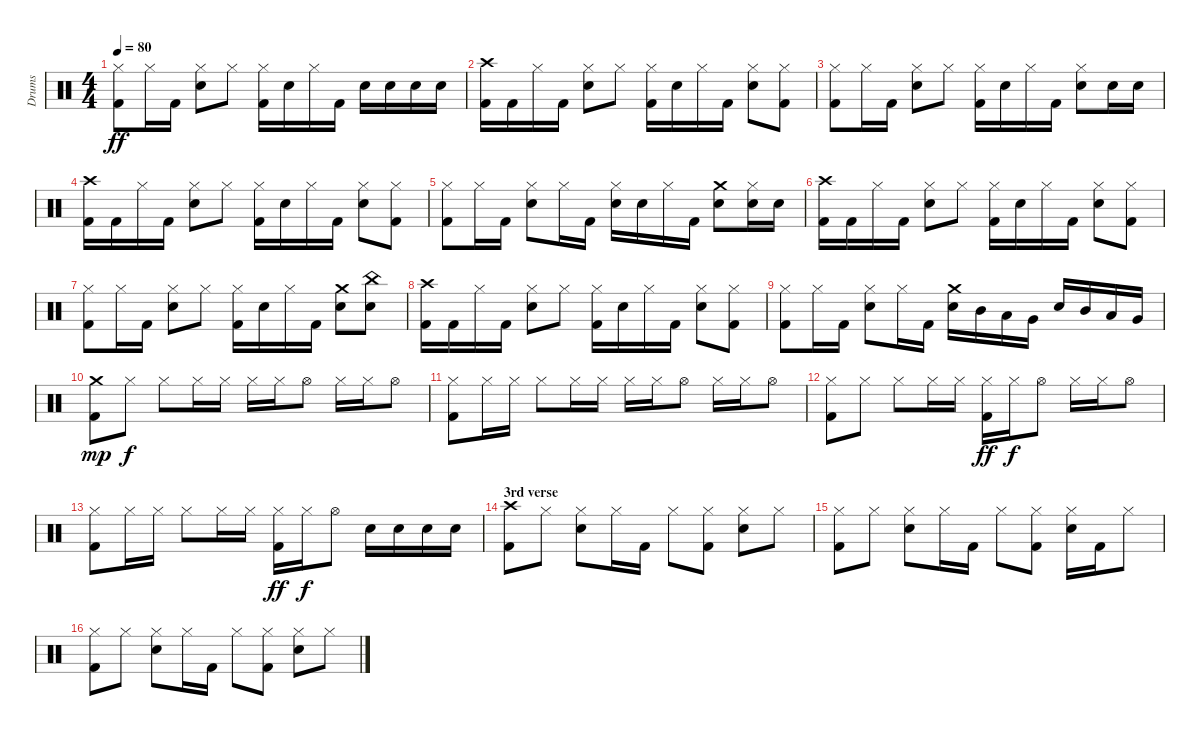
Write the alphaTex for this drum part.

\track ("Drums" "Drums") {instrument percussion}
\staff {score}
\articulation defaults
\ts (4 4)
\tempo 80
\clef neutral
\ks c
("Hi-Hat (closed)" "Kick (hit) 2").8{dy ff} "Hi-Hat (closed)".16 "Kick (hit) 2".16 ("Hi-Hat (closed)" "Snare (hit) 2").8 "Hi-Hat (closed)".8 ("Hi-Hat (closed)" "Kick (hit) 2").16 "Snare (hit) 2".16 "Hi-Hat (closed)".16 "Kick (hit) 2".16 "Snare (hit) 2".16 "Snare (hit) 2".16 "Snare (hit) 2".16 "Snare (hit) 2".16 |
("Crash high (hit)" "Kick (hit) 2").16 "Kick (hit) 2".16 "Hi-Hat (closed)".16 "Kick (hit) 2".16 ("Hi-Hat (closed)" "Snare (hit) 2").8 "Hi-Hat (closed)".8 ("Hi-Hat (closed)" "Kick (hit) 2").16 "Snare (hit) 2".16 "Hi-Hat (closed)".16 "Kick (hit) 2".16 ("Hi-Hat (closed)" "Snare (hit) 2").8 ("Hi-Hat (closed)" "Kick (hit) 2").8 |
("Hi-Hat (closed)" "Kick (hit) 2").8 "Hi-Hat (closed)".16 "Kick (hit) 2".16 ("Hi-Hat (closed)" "Snare (hit) 2").8 "Hi-Hat (closed)".8 ("Hi-Hat (closed)" "Kick (hit) 2").16 "Snare (hit) 2".16 "Hi-Hat (closed)".16 "Kick (hit) 2".16 ("Hi-Hat (closed)" "Snare (hit) 2").8 "Snare (hit) 2".16 "Snare (hit) 2".16 |
("Crash high (hit)" "Kick (hit) 2").16 "Kick (hit) 2".16 "Hi-Hat (closed)".16 "Kick (hit) 2".16 ("Hi-Hat (closed)" "Snare (hit) 2").8 "Hi-Hat (closed)".8 ("Hi-Hat (closed)" "Kick (hit) 2").16 "Snare (hit) 2".16 "Hi-Hat (closed)".16 "Kick (hit) 2".16 ("Hi-Hat (closed)" "Snare (hit) 2").8 ("Hi-Hat (closed)" "Kick (hit) 2").8 |
("Hi-Hat (closed)" "Kick (hit) 2").8 "Hi-Hat (closed)".16 "Kick (hit) 2".16 ("Hi-Hat (closed)" "Snare (hit) 2").8 "Hi-Hat (closed)".16 "Kick (hit) 2".16 ("Hi-Hat (closed)" "Snare (hit) 2").16 "Snare (hit) 2".16 "Hi-Hat (closed)".16 "Kick (hit) 2".16 ("Crash medium (hit)" "Snare (hit) 2").8 ("Hi-Hat (closed)" "Snare (hit) 2").16 "Snare (hit) 2".16 |
("Crash high (hit)" "Kick (hit) 2").16 "Kick (hit) 2".16 "Hi-Hat (closed)".16 "Kick (hit) 2".16 ("Hi-Hat (closed)" "Snare (hit) 2").8 "Hi-Hat (closed)".8 ("Hi-Hat (closed)" "Kick (hit) 2").16 "Snare (hit) 2".16 "Hi-Hat (closed)".16 "Kick (hit) 2".16 ("Hi-Hat (closed)" "Snare (hit) 2").8 ("Hi-Hat (closed)" "Kick (hit) 2").8 |
("Hi-Hat (closed)" "Kick (hit) 2").8 "Hi-Hat (closed)".16 "Kick (hit) 2".16 ("Hi-Hat (closed)" "Snare (hit) 2").8 "Hi-Hat (closed)".8 ("Hi-Hat (closed)" "Kick (hit) 2").16 "Snare (hit) 2".16 "Hi-Hat (closed)".16 "Kick (hit) 2".16 ("Crash medium (hit)" "Snare (hit) 2").8 ("China (hit)" "Snare (hit) 2").8 |
("Crash high (hit)" "Kick (hit) 2").16 "Kick (hit) 2".16 "Hi-Hat (closed)".16 "Kick (hit) 2".16 ("Hi-Hat (closed)" "Snare (hit) 2").8 "Hi-Hat (closed)".8 ("Hi-Hat (closed)" "Kick (hit) 2").16 "Snare (hit) 2".16 "Hi-Hat (closed)".16 "Kick (hit) 2".16 ("Hi-Hat (closed)" "Snare (hit) 2").8 ("Hi-Hat (closed)" "Kick (hit) 2").8 |
("Hi-Hat (closed)" "Kick (hit) 2").8 "Hi-Hat (closed)".16 "Kick (hit) 2".16 ("Hi-Hat (closed)" "Snare (hit) 2").8 "Hi-Hat (closed)".16 "Kick (hit) 2".16 ("Crash medium (hit)" "Snare (hit) 2").16 "Mid Tom (hit)".16 "Low Tom (hit)".16 "Very Low Tom (hit)".16 "Snare (hit) 2".16 "Mid Tom (hit)".16 "Low Tom (hit)".16 "Very Low Tom (hit)".16 |
("Crash medium (hit)" "Kick (hit) 2").8{dy mp} "Hi-Hat (closed)".8{dy f} "Hi-Hat (closed)".8 "Hi-Hat (closed)".16 "Hi-Hat (closed)".16 "Hi-Hat (closed)".16 "Hi-Hat (closed)".16 "Hi-Hat (open)".8 "Hi-Hat (closed)".16 "Hi-Hat (closed)".16 "Hi-Hat (open)".8 |
("Hi-Hat (closed)" "Kick (hit) 2").8 "Hi-Hat (closed)".16 "Hi-Hat (closed)".16 "Hi-Hat (closed)".8 "Hi-Hat (closed)".16 "Hi-Hat (closed)".16 "Hi-Hat (closed)".16 "Hi-Hat (closed)".16 "Hi-Hat (open)".8 "Hi-Hat (closed)".16 "Hi-Hat (closed)".16 "Hi-Hat (open)".8 |
("Hi-Hat (closed)" "Kick (hit) 2").8 "Hi-Hat (closed)".8 "Hi-Hat (closed)".8 "Hi-Hat (closed)".16 "Hi-Hat (closed)".16 ("Hi-Hat (closed)" "Kick (hit) 2").16{dy ff} "Hi-Hat (closed)".16{dy f} "Hi-Hat (open)".8 "Hi-Hat (closed)".16 "Hi-Hat (closed)".16 "Hi-Hat (open)".8 |
("Hi-Hat (closed)" "Kick (hit) 2").8 "Hi-Hat (closed)".16 "Hi-Hat (closed)".16 "Hi-Hat (closed)".8 "Hi-Hat (closed)".16 "Hi-Hat (closed)".16 ("Hi-Hat (closed)" "Kick (hit) 2").16{dy ff} "Hi-Hat (closed)".16{dy f} "Hi-Hat (open)".8 "Snare (hit) 2".16 "Snare (hit) 2".16 "Snare (hit) 2".16 "Snare (hit) 2".16 |
\section ("" "3rd verse")
("Crash high (hit)" "Kick (hit) 2").8 "Hi-Hat (closed)".8 ("Hi-Hat (closed)" "Snare (hit) 2").8 "Hi-Hat (closed)".16 "Kick (hit) 2".16 "Hi-Hat (closed)".8 ("Hi-Hat (closed)" "Kick (hit) 2").8 ("Hi-Hat (closed)" "Snare (hit) 2").8 "Hi-Hat (closed)".8 |
("Hi-Hat (closed)" "Kick (hit) 2").8 "Hi-Hat (closed)".8 ("Hi-Hat (closed)" "Snare (hit) 2").8 "Hi-Hat (closed)".16 "Kick (hit) 2".16 "Hi-Hat (closed)".8 ("Hi-Hat (closed)" "Kick (hit) 2").8 ("Hi-Hat (closed)" "Snare (hit) 2").16 "Kick (hit) 2".16 "Hi-Hat (closed)".8 |
("Hi-Hat (closed)" "Kick (hit) 2").8 "Hi-Hat (closed)".8 ("Hi-Hat (closed)" "Snare (hit) 2").8 "Hi-Hat (closed)".16 "Kick (hit) 2".16 "Hi-Hat (closed)".8 ("Hi-Hat (closed)" "Kick (hit) 2").8 ("Hi-Hat (closed)" "Snare (hit) 2").8 "Hi-Hat (closed)".8
